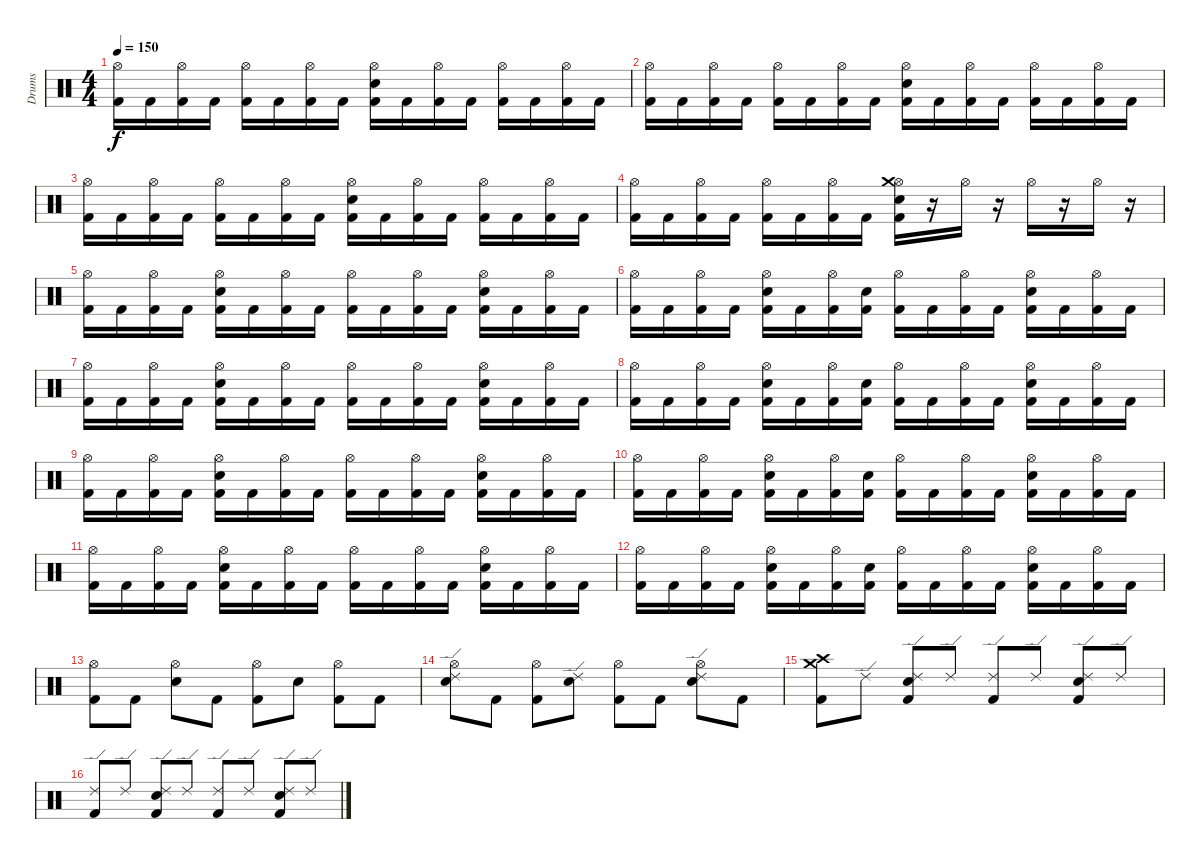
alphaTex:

\track ("Drums" "Drums") {instrument percussion}
\staff {score}
\articulation defaults
\ts (4 4)
\tempo 150
\clef neutral
\ks c
("Hi-Hat (open)" "Kick (hit) 2").16{dy f} "Kick (hit) 2".16 ("Hi-Hat (open)" "Kick (hit) 2").16 "Kick (hit) 2".16 ("Hi-Hat (open)" "Kick (hit) 2").16 "Kick (hit) 2".16 ("Hi-Hat (open)" "Kick (hit) 2").16 "Kick (hit) 2".16 ("Hi-Hat (open)" "Kick (hit) 2" "Snare (hit) 2").16 "Kick (hit) 2".16 ("Hi-Hat (open)" "Kick (hit) 2").16 "Kick (hit) 2".16 ("Hi-Hat (open)" "Kick (hit) 2").16 "Kick (hit) 2".16 ("Hi-Hat (open)" "Kick (hit) 2").16 "Kick (hit) 2".16 |
("Hi-Hat (open)" "Kick (hit) 2").16 "Kick (hit) 2".16 ("Hi-Hat (open)" "Kick (hit) 2").16 "Kick (hit) 2".16 ("Hi-Hat (open)" "Kick (hit) 2").16 "Kick (hit) 2".16 ("Hi-Hat (open)" "Kick (hit) 2").16 "Kick (hit) 2".16 ("Hi-Hat (open)" "Kick (hit) 2" "Snare (hit) 2").16 "Kick (hit) 2".16 ("Hi-Hat (open)" "Kick (hit) 2").16 "Kick (hit) 2".16 ("Hi-Hat (open)" "Kick (hit) 2").16 "Kick (hit) 2".16 ("Hi-Hat (open)" "Kick (hit) 2").16 "Kick (hit) 2".16 |
("Hi-Hat (open)" "Kick (hit) 2").16 "Kick (hit) 2".16 ("Hi-Hat (open)" "Kick (hit) 2").16 "Kick (hit) 2".16 ("Hi-Hat (open)" "Kick (hit) 2").16 "Kick (hit) 2".16 ("Hi-Hat (open)" "Kick (hit) 2").16 "Kick (hit) 2".16 ("Hi-Hat (open)" "Kick (hit) 2" "Snare (hit) 2").16 "Kick (hit) 2".16 ("Hi-Hat (open)" "Kick (hit) 2").16 "Kick (hit) 2".16 ("Hi-Hat (open)" "Kick (hit) 2").16 "Kick (hit) 2".16 ("Hi-Hat (open)" "Kick (hit) 2").16 "Kick (hit) 2".16 |
("Hi-Hat (open)" "Kick (hit) 2").16 "Kick (hit) 2".16 ("Hi-Hat (open)" "Kick (hit) 2").16 "Kick (hit) 2".16 ("Hi-Hat (open)" "Kick (hit) 2").16 "Kick (hit) 2".16 ("Hi-Hat (open)" "Kick (hit) 2").16 "Kick (hit) 2".16 ("Hi-Hat (open)" "Crash medium (hit)" "Snare (hit) 2" "Kick (hit) 2").16 r.16 "Hi-Hat (open)".16 r.16 "Hi-Hat (open)".16 r.16 "Hi-Hat (open)".16 r.16 |
("Hi-Hat (open)" "Kick (hit) 2").16 "Kick (hit) 2".16 ("Hi-Hat (open)" "Kick (hit) 2").16 "Kick (hit) 2".16 ("Hi-Hat (open)" "Kick (hit) 2" "Snare (hit) 2").16 "Kick (hit) 2".16 ("Hi-Hat (open)" "Kick (hit) 2").16 "Kick (hit) 2".16 ("Hi-Hat (open)" "Kick (hit) 2").16 "Kick (hit) 2".16 ("Hi-Hat (open)" "Kick (hit) 2").16 "Kick (hit) 2".16 ("Hi-Hat (open)" "Kick (hit) 2" "Snare (hit) 2").16 "Kick (hit) 2".16 ("Hi-Hat (open)" "Kick (hit) 2").16 "Kick (hit) 2".16 |
("Hi-Hat (open)" "Kick (hit) 2").16 "Kick (hit) 2".16 ("Hi-Hat (open)" "Kick (hit) 2").16 "Kick (hit) 2".16 ("Hi-Hat (open)" "Kick (hit) 2" "Snare (hit) 2").16 "Kick (hit) 2".16 ("Hi-Hat (open)" "Kick (hit) 2").16 ("Kick (hit) 2" "Snare (hit) 2").16 ("Hi-Hat (open)" "Kick (hit) 2").16 "Kick (hit) 2".16 ("Hi-Hat (open)" "Kick (hit) 2").16 "Kick (hit) 2".16 ("Hi-Hat (open)" "Kick (hit) 2" "Snare (hit) 2").16 "Kick (hit) 2".16 ("Hi-Hat (open)" "Kick (hit) 2").16 "Kick (hit) 2".16 |
("Hi-Hat (open)" "Kick (hit) 2").16 "Kick (hit) 2".16 ("Hi-Hat (open)" "Kick (hit) 2").16 "Kick (hit) 2".16 ("Hi-Hat (open)" "Kick (hit) 2" "Snare (hit) 2").16 "Kick (hit) 2".16 ("Hi-Hat (open)" "Kick (hit) 2").16 "Kick (hit) 2".16 ("Hi-Hat (open)" "Kick (hit) 2").16 "Kick (hit) 2".16 ("Hi-Hat (open)" "Kick (hit) 2").16 "Kick (hit) 2".16 ("Hi-Hat (open)" "Kick (hit) 2" "Snare (hit) 2").16 "Kick (hit) 2".16 ("Hi-Hat (open)" "Kick (hit) 2").16 "Kick (hit) 2".16 |
("Hi-Hat (open)" "Kick (hit) 2").16 "Kick (hit) 2".16 ("Hi-Hat (open)" "Kick (hit) 2").16 "Kick (hit) 2".16 ("Hi-Hat (open)" "Kick (hit) 2" "Snare (hit) 2").16 "Kick (hit) 2".16 ("Hi-Hat (open)" "Kick (hit) 2").16 ("Kick (hit) 2" "Snare (hit) 2").16 ("Hi-Hat (open)" "Kick (hit) 2").16 "Kick (hit) 2".16 ("Hi-Hat (open)" "Kick (hit) 2").16 "Kick (hit) 2".16 ("Hi-Hat (open)" "Kick (hit) 2" "Snare (hit) 2").16 "Kick (hit) 2".16 ("Hi-Hat (open)" "Kick (hit) 2").16 "Kick (hit) 2".16 |
("Hi-Hat (open)" "Kick (hit) 2").16 "Kick (hit) 2".16 ("Hi-Hat (open)" "Kick (hit) 2").16 "Kick (hit) 2".16 ("Hi-Hat (open)" "Kick (hit) 2" "Snare (hit) 2").16 "Kick (hit) 2".16 ("Hi-Hat (open)" "Kick (hit) 2").16 "Kick (hit) 2".16 ("Hi-Hat (open)" "Kick (hit) 2").16 "Kick (hit) 2".16 ("Hi-Hat (open)" "Kick (hit) 2").16 "Kick (hit) 2".16 ("Hi-Hat (open)" "Kick (hit) 2" "Snare (hit) 2").16 "Kick (hit) 2".16 ("Hi-Hat (open)" "Kick (hit) 2").16 "Kick (hit) 2".16 |
("Hi-Hat (open)" "Kick (hit) 2").16 "Kick (hit) 2".16 ("Hi-Hat (open)" "Kick (hit) 2").16 "Kick (hit) 2".16 ("Hi-Hat (open)" "Kick (hit) 2" "Snare (hit) 2").16 "Kick (hit) 2".16 ("Hi-Hat (open)" "Kick (hit) 2").16 ("Kick (hit) 2" "Snare (hit) 2").16 ("Hi-Hat (open)" "Kick (hit) 2").16 "Kick (hit) 2".16 ("Hi-Hat (open)" "Kick (hit) 2").16 "Kick (hit) 2".16 ("Hi-Hat (open)" "Kick (hit) 2" "Snare (hit) 2").16 "Kick (hit) 2".16 ("Hi-Hat (open)" "Kick (hit) 2").16 "Kick (hit) 2".16 |
("Hi-Hat (open)" "Kick (hit) 2").16 "Kick (hit) 2".16 ("Hi-Hat (open)" "Kick (hit) 2").16 "Kick (hit) 2".16 ("Hi-Hat (open)" "Kick (hit) 2" "Snare (hit) 2").16 "Kick (hit) 2".16 ("Hi-Hat (open)" "Kick (hit) 2").16 "Kick (hit) 2".16 ("Hi-Hat (open)" "Kick (hit) 2").16 "Kick (hit) 2".16 ("Hi-Hat (open)" "Kick (hit) 2").16 "Kick (hit) 2".16 ("Hi-Hat (open)" "Kick (hit) 2" "Snare (hit) 2").16 "Kick (hit) 2".16 ("Hi-Hat (open)" "Kick (hit) 2").16 "Kick (hit) 2".16 |
("Hi-Hat (open)" "Kick (hit) 2").16 "Kick (hit) 2".16 ("Hi-Hat (open)" "Kick (hit) 2").16 "Kick (hit) 2".16 ("Hi-Hat (open)" "Kick (hit) 2" "Snare (hit) 2").16 "Kick (hit) 2".16 ("Hi-Hat (open)" "Kick (hit) 2").16 ("Kick (hit) 2" "Snare (hit) 2").16 ("Hi-Hat (open)" "Kick (hit) 2").16 "Kick (hit) 2".16 ("Hi-Hat (open)" "Kick (hit) 2").16 "Kick (hit) 2".16 ("Hi-Hat (open)" "Kick (hit) 2" "Snare (hit) 2").16 "Kick (hit) 2".16 ("Hi-Hat (open)" "Kick (hit) 2").16 "Kick (hit) 2".16 |
("Hi-Hat (open)" "Kick (hit) 2").8 "Kick (hit) 2".8 ("Hi-Hat (open)" "Snare (hit) 2").8 "Kick (hit) 2".8 ("Hi-Hat (open)" "Kick (hit) 2").8 "Snare (hit) 2".8 ("Hi-Hat (open)" "Kick (hit) 2").8 "Kick (hit) 2".8 |
("Hi-Hat (open)" "Snare (hit) 2" "Ride (edge) 2").8 "Kick (hit) 2".8 ("Hi-Hat (open)" "Kick (hit) 2").8 ("Snare (hit) 2" "Ride (edge) 2").8 ("Hi-Hat (open)" "Kick (hit) 2").8 "Kick (hit) 2".8 ("Hi-Hat (open)" "Snare (hit) 2" "Ride (edge) 2").8 "Kick (hit) 2".8 |
("Crash medium (hit)" "Crash high (hit)" "Kick (hit) 2").8 "Ride (edge) 2".8 ("Ride (edge) 2" "Kick (hit) 2" "Snare (hit) 2").8 "Ride (edge) 2".8 ("Ride (edge) 2" "Kick (hit) 2").8 "Ride (edge) 2".8 ("Ride (edge) 2" "Kick (hit) 2" "Snare (hit) 2").8 "Ride (edge) 2".8 |
("Ride (edge) 2" "Kick (hit) 2").8 "Ride (edge) 2".8 ("Ride (edge) 2" "Kick (hit) 2" "Snare (hit) 2").8 "Ride (edge) 2".8 ("Ride (edge) 2" "Kick (hit) 2").8 "Ride (edge) 2".8 ("Ride (edge) 2" "Kick (hit) 2" "Snare (hit) 2").8 "Ride (edge) 2".8
